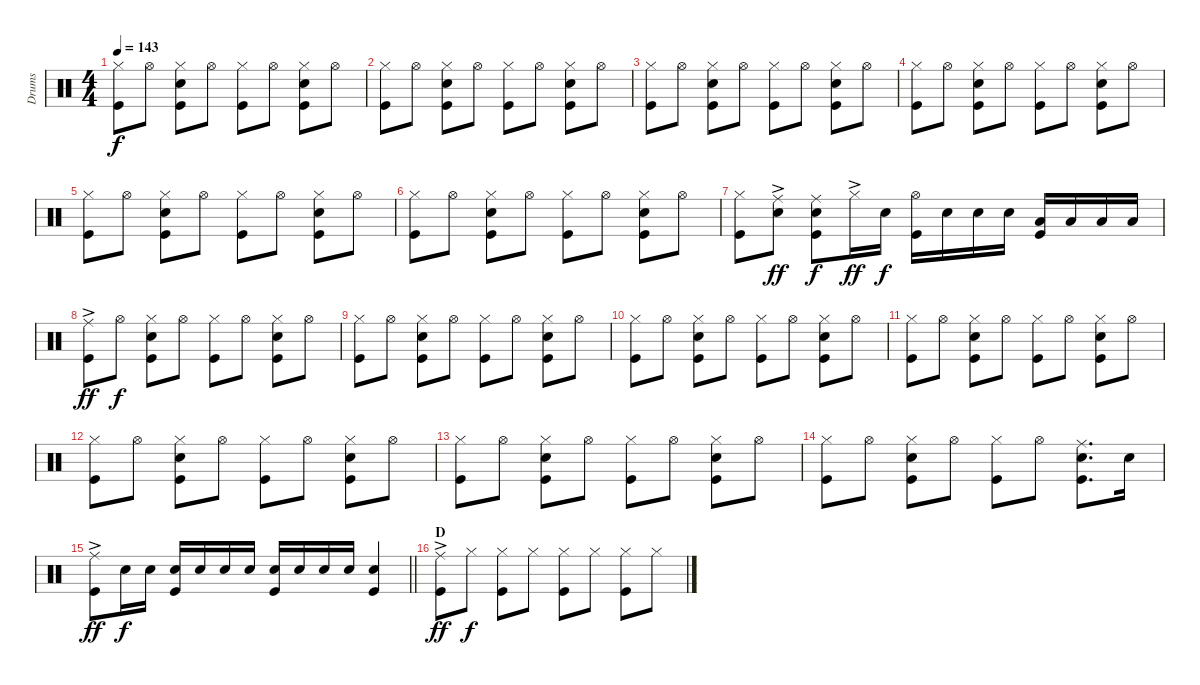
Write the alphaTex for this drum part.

\track ("Drums" "Drums") {instrument percussion}
\staff {score}
\articulation defaults
\ts (4 4)
\tempo 143
\clef neutral
\ks c
("Hi-Hat (closed)" "Kick (hit)").8{dy f} "Hi-Hat (open)".8 ("Hi-Hat (closed)" "Kick (hit)" "Snare (hit) 2").8 "Hi-Hat (open)".8 ("Hi-Hat (closed)" "Kick (hit)").8 "Hi-Hat (open)".8 ("Hi-Hat (closed)" "Kick (hit)" "Snare (hit) 2").8 "Hi-Hat (open)".8 |
("Hi-Hat (closed)" "Kick (hit)").8 "Hi-Hat (open)".8 ("Hi-Hat (closed)" "Kick (hit)" "Snare (hit) 2").8 "Hi-Hat (open)".8 ("Hi-Hat (closed)" "Kick (hit)").8 "Hi-Hat (open)".8 ("Hi-Hat (closed)" "Kick (hit)" "Snare (hit) 2").8 "Hi-Hat (open)".8 |
("Hi-Hat (closed)" "Kick (hit)").8 "Hi-Hat (open)".8 ("Hi-Hat (closed)" "Kick (hit)" "Snare (hit) 2").8 "Hi-Hat (open)".8 ("Hi-Hat (closed)" "Kick (hit)").8 "Hi-Hat (open)".8 ("Hi-Hat (closed)" "Kick (hit)" "Snare (hit) 2").8 "Hi-Hat (open)".8 |
("Hi-Hat (closed)" "Kick (hit)").8 "Hi-Hat (open)".8 ("Hi-Hat (closed)" "Kick (hit)" "Snare (hit) 2").8 "Hi-Hat (open)".8 ("Hi-Hat (closed)" "Kick (hit)").8 "Hi-Hat (open)".8 ("Hi-Hat (closed)" "Kick (hit)" "Snare (hit) 2").8 "Hi-Hat (open)".8 |
("Hi-Hat (closed)" "Kick (hit)").8 "Hi-Hat (open)".8 ("Hi-Hat (closed)" "Kick (hit)" "Snare (hit) 2").8 "Hi-Hat (open)".8 ("Hi-Hat (closed)" "Kick (hit)").8 "Hi-Hat (open)".8 ("Hi-Hat (closed)" "Kick (hit)" "Snare (hit) 2").8 "Hi-Hat (open)".8 |
("Hi-Hat (closed)" "Kick (hit)").8 "Hi-Hat (open)".8 ("Hi-Hat (closed)" "Kick (hit)" "Snare (hit) 2").8 "Hi-Hat (open)".8 ("Hi-Hat (closed)" "Kick (hit)").8 "Hi-Hat (open)".8 ("Hi-Hat (closed)" "Kick (hit)" "Snare (hit) 2").8 "Hi-Hat (open)".8 |
("Hi-Hat (closed)" "Kick (hit)").8 ("Snare (hit) 2" "Ride (middle)"{ac}).8{dy ff} ("Ride (middle)" "Snare (hit) 2" "Kick (hit)").8{dy f} "Hi-Hat (closed)"{ac}.16{dy ff} "Snare (hit) 2".16{dy f} ("Hi-Hat (open)" "Kick (hit)").16 "Snare (hit) 2".16 "Snare (hit) 2".16 "Snare (hit) 2".16 ("Low Tom (hit)" "Kick (hit)").16 "Low Tom (hit)".16 "Low Tom (hit)".16 "Low Tom (hit)".16 |
("Ride (middle)"{ac} "Kick (hit)").8{dy ff} "Hi-Hat (open)".8{dy f} ("Hi-Hat (closed)" "Kick (hit)" "Snare (hit) 2").8 "Hi-Hat (open)".8 ("Hi-Hat (closed)" "Kick (hit)").8 "Hi-Hat (open)".8 ("Hi-Hat (closed)" "Kick (hit)" "Snare (hit) 2").8 "Hi-Hat (open)".8 |
("Hi-Hat (closed)" "Kick (hit)").8 "Hi-Hat (open)".8 ("Hi-Hat (closed)" "Kick (hit)" "Snare (hit) 2").8 "Hi-Hat (open)".8 ("Hi-Hat (closed)" "Kick (hit)").8 "Hi-Hat (open)".8 ("Hi-Hat (closed)" "Kick (hit)" "Snare (hit) 2").8 "Hi-Hat (open)".8 |
("Hi-Hat (closed)" "Kick (hit)").8 "Hi-Hat (open)".8 ("Hi-Hat (closed)" "Kick (hit)" "Snare (hit) 2").8 "Hi-Hat (open)".8 ("Hi-Hat (closed)" "Kick (hit)").8 "Hi-Hat (open)".8 ("Hi-Hat (closed)" "Kick (hit)" "Snare (hit) 2").8 "Hi-Hat (open)".8 |
("Hi-Hat (closed)" "Kick (hit)").8 "Hi-Hat (open)".8 ("Hi-Hat (closed)" "Kick (hit)" "Snare (hit) 2").8 "Hi-Hat (open)".8 ("Hi-Hat (closed)" "Kick (hit)").8 "Hi-Hat (open)".8 ("Hi-Hat (closed)" "Kick (hit)" "Snare (hit) 2").8 "Hi-Hat (open)".8 |
("Hi-Hat (closed)" "Kick (hit)").8 "Hi-Hat (open)".8 ("Hi-Hat (closed)" "Kick (hit)" "Snare (hit) 2").8 "Hi-Hat (open)".8 ("Hi-Hat (closed)" "Kick (hit)").8 "Hi-Hat (open)".8 ("Hi-Hat (closed)" "Kick (hit)" "Snare (hit) 2").8 "Hi-Hat (open)".8 |
("Hi-Hat (closed)" "Kick (hit)").8 "Hi-Hat (open)".8 ("Hi-Hat (closed)" "Kick (hit)" "Snare (hit) 2").8 "Hi-Hat (open)".8 ("Hi-Hat (closed)" "Kick (hit)").8 "Hi-Hat (open)".8 ("Hi-Hat (closed)" "Kick (hit)" "Snare (hit) 2").8 "Hi-Hat (open)".8 |
("Hi-Hat (closed)" "Kick (hit)").8 "Hi-Hat (open)".8 ("Hi-Hat (closed)" "Snare (hit) 2" "Kick (hit)").8 "Hi-Hat (open)".8 ("Hi-Hat (closed)" "Kick (hit)").8 "Hi-Hat (open)".8 ("Ride (middle)" "Snare (hit) 2" "Kick (hit)").8{d} "Snare (hit) 2".16 |
\barLineRight lightlight
("Ride (middle)"{ac} "Kick (hit)").8{dy ff} "Snare (hit) 2".16{dy f} "Snare (hit) 2".16 ("Snare (hit) 2" "Kick (hit)").16 "Snare (hit) 2".16 "Snare (hit) 2".16 "Snare (hit) 2".16 ("Snare (hit) 2" "Kick (hit)").16 "Snare (hit) 2".16 "Snare (hit) 2".16 "Snare (hit) 2".16 ("Snare (hit) 2" "Kick (hit)").4 |
\section ("" "D")
("Ride (middle)"{ac} "Kick (hit)").8{dy ff} "Hi-Hat (closed)".8{dy f} ("Hi-Hat (closed)" "Kick (hit)").8 "Hi-Hat (closed)".8 ("Hi-Hat (closed)" "Kick (hit)").8 "Hi-Hat (closed)".8 ("Hi-Hat (closed)" "Kick (hit)").8 "Hi-Hat (closed)".8
